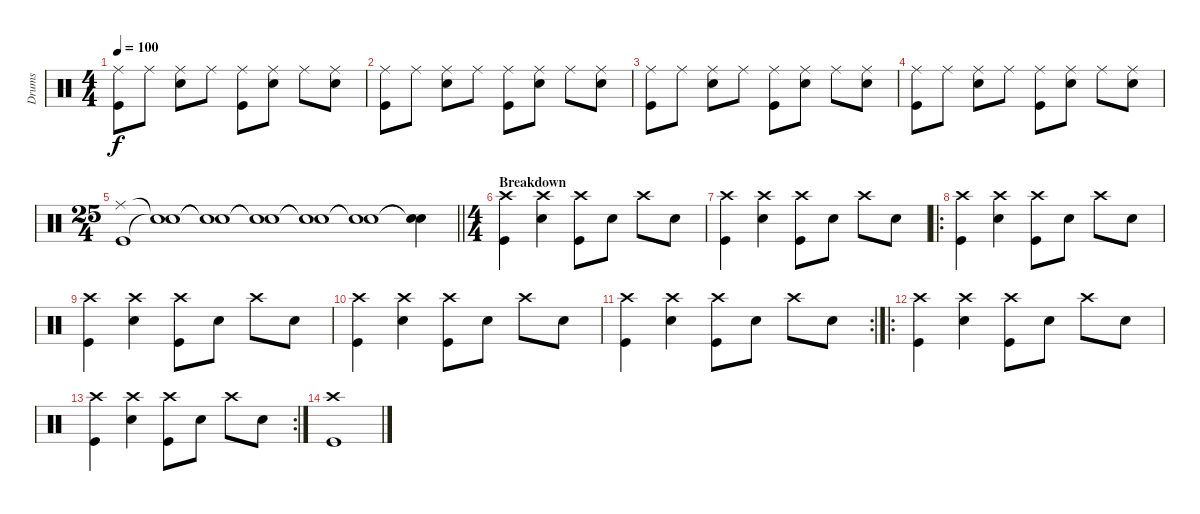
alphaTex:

\track ("Drums" "Drums") {instrument percussion}
\staff {score}
\articulation defaults
\ts (4 4)
\tempo 100
\clef neutral
\ks c
("Ride (middle)" "Kick (hit)").8{dy f} "Ride (middle)".8 ("Ride (middle)" "Snare (hit) 2").8 "Ride (middle)".8 ("Ride (middle)" "Kick (hit)").8 ("Ride (middle)" "Snare (hit) 2").8 "Ride (middle)".8 ("Ride (middle)" "Snare (hit) 2").8 |
("Ride (middle)" "Kick (hit)").8 "Ride (middle)".8 ("Ride (middle)" "Snare (hit) 2").8 "Ride (middle)".8 ("Ride (middle)" "Kick (hit)").8 ("Ride (middle)" "Snare (hit) 2").8 "Ride (middle)".8 ("Ride (middle)" "Snare (hit) 2").8 |
("Ride (middle)" "Kick (hit)").8 "Ride (middle)".8 ("Ride (middle)" "Snare (hit) 2").8 "Ride (middle)".8 ("Ride (middle)" "Kick (hit)").8 ("Ride (middle)" "Snare (hit) 2").8 "Ride (middle)".8 ("Ride (middle)" "Snare (hit) 2").8 |
("Ride (middle)" "Kick (hit)").8 "Ride (middle)".8 ("Ride (middle)" "Snare (hit) 2").8 "Ride (middle)".8 ("Ride (middle)" "Kick (hit)").8 ("Ride (middle)" "Snare (hit) 2").8 "Ride (middle)".8 ("Ride (middle)" "Snare (hit) 2").8 |
\ts (25 4)
\barLineRight lightlight
("Ride (middle)" "Kick (hit)").1 ("Snare (hit)"{t} "Snare (hit)"{t}).1 ("Snare (hit)"{t} "Snare (hit)"{t}).1 ("Snare (hit)"{t} "Snare (hit)"{t}).1 ("Snare (hit)"{t} "Snare (hit)"{t}).1 ("Snare (hit)"{t} "Snare (hit)"{t}).1 ("Snare (hit)"{t} "Snare (hit)"{t}).4 |
\ts (4 4)
\section ("" "Breakdown")
("Crash high (hit)" "Kick (hit)").4 ("Crash high (hit)" "Snare (hit) 2").4 ("Crash high (hit)" "Kick (hit)").8 "Snare (hit) 2".8 "Crash high (hit)".8 "Snare (hit) 2".8 |
("Crash high (hit)" "Kick (hit)").4 ("Crash high (hit)" "Snare (hit) 2").4 ("Crash high (hit)" "Kick (hit)").8 "Snare (hit) 2".8 "Crash high (hit)".8 "Snare (hit) 2".8 |
\ro
("Crash high (hit)" "Kick (hit)").4 ("Crash high (hit)" "Snare (hit) 2").4 ("Crash high (hit)" "Kick (hit)").8 "Snare (hit) 2".8 "Crash high (hit)".8 "Snare (hit) 2".8 |
("Crash high (hit)" "Kick (hit)").4 ("Crash high (hit)" "Snare (hit) 2").4 ("Crash high (hit)" "Kick (hit)").8 "Snare (hit) 2".8 "Crash high (hit)".8 "Snare (hit) 2".8 |
("Crash high (hit)" "Kick (hit)").4 ("Crash high (hit)" "Snare (hit) 2").4 ("Crash high (hit)" "Kick (hit)").8 "Snare (hit) 2".8 "Crash high (hit)".8 "Snare (hit) 2".8 |
\rc 2
("Crash high (hit)" "Kick (hit)").4 ("Crash high (hit)" "Snare (hit) 2").4 ("Crash high (hit)" "Kick (hit)").8 "Snare (hit) 2".8 "Crash high (hit)".8 "Snare (hit) 2".8 |
\ro
("Crash high (hit)" "Kick (hit)").4 ("Crash high (hit)" "Snare (hit) 2").4 ("Crash high (hit)" "Kick (hit)").8 "Snare (hit) 2".8 "Crash high (hit)".8 "Snare (hit) 2".8 |
\rc 2
("Crash high (hit)" "Kick (hit)").4 ("Crash high (hit)" "Snare (hit) 2").4 ("Crash high (hit)" "Kick (hit)").8 "Snare (hit) 2".8 "Crash high (hit)".8 "Snare (hit) 2".8 |
("Crash high (hit)" "Kick (hit)").1
